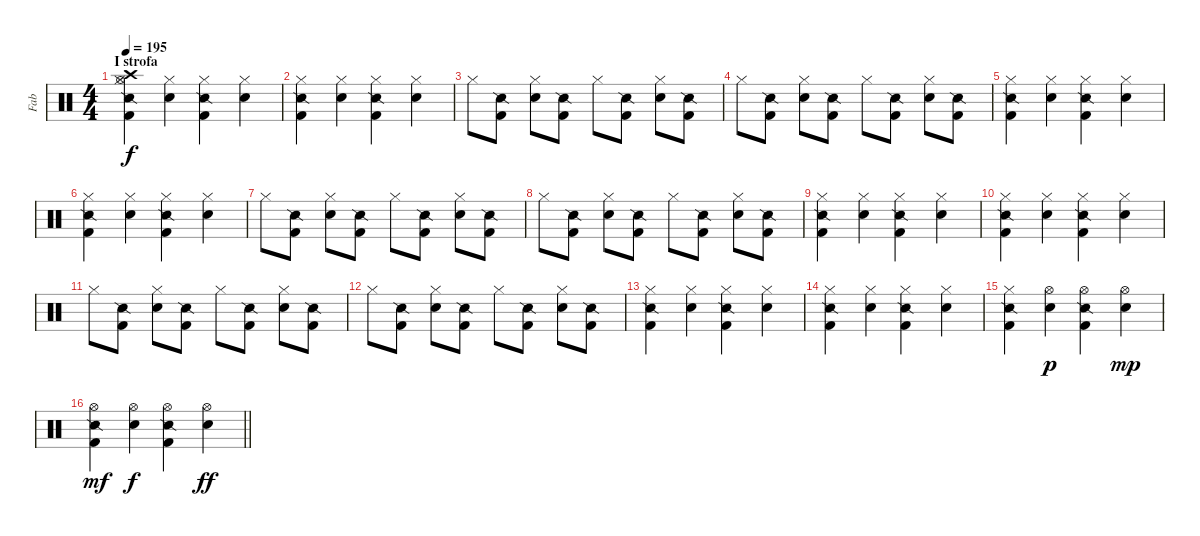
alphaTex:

\track ("Fab" "Fab") {instrument percussion}
\staff {score}
\articulation defaults
\ts (4 4)
\section ("" "I strofa")
\tempo 195
\clef neutral
\ks c
("Crash high (hit)" "Hi-Hat (open)" "Hi-Hat (closed)" "Snare (side stick) 2" "Kick (hit) 2").4{dy f} ("Hi-Hat (closed)" "Electric Snare (hit)").4 ("Hi-Hat (closed)" "Snare (side stick) 2" "Kick (hit) 2").4 ("Hi-Hat (closed)" "Electric Snare (hit)").4 |
("Hi-Hat (closed)" "Snare (side stick) 2" "Kick (hit) 2").4 ("Hi-Hat (closed)" "Electric Snare (hit)").4 ("Hi-Hat (closed)" "Snare (side stick) 2" "Kick (hit) 2").4 ("Hi-Hat (closed)" "Electric Snare (hit)").4 |
"Hi-Hat (closed)".8 ("Kick (hit) 2" "Snare (side stick) 2").8 ("Hi-Hat (closed)" "Electric Snare (hit)").8 ("Kick (hit) 2" "Snare (side stick) 2").8 "Hi-Hat (closed)".8 ("Kick (hit) 2" "Snare (side stick) 2").8 ("Hi-Hat (closed)" "Electric Snare (hit)").8 ("Kick (hit) 2" "Snare (side stick) 2").8 |
"Hi-Hat (closed)".8 ("Snare (side stick) 2" "Kick (hit) 2").8 ("Hi-Hat (closed)" "Electric Snare (hit)").8 ("Snare (side stick) 2" "Kick (hit) 2").8 "Hi-Hat (closed)".8 ("Snare (side stick) 2" "Kick (hit) 2").8 ("Hi-Hat (closed)" "Electric Snare (hit)").8 ("Snare (side stick) 2" "Kick (hit) 2").8 |
("Hi-Hat (closed)" "Snare (side stick) 2" "Kick (hit) 2").4 ("Hi-Hat (closed)" "Electric Snare (hit)").4 ("Hi-Hat (closed)" "Snare (side stick) 2" "Kick (hit) 2").4 ("Hi-Hat (closed)" "Electric Snare (hit)").4 |
("Hi-Hat (closed)" "Snare (side stick) 2" "Kick (hit) 2").4 ("Hi-Hat (closed)" "Electric Snare (hit)").4 ("Hi-Hat (closed)" "Snare (side stick) 2" "Kick (hit) 2").4 ("Hi-Hat (closed)" "Electric Snare (hit)").4 |
"Hi-Hat (closed)".8 ("Kick (hit) 2" "Snare (side stick) 2").8 ("Hi-Hat (closed)" "Electric Snare (hit)").8 ("Kick (hit) 2" "Snare (side stick) 2").8 "Hi-Hat (closed)".8 ("Kick (hit) 2" "Snare (side stick) 2").8 ("Hi-Hat (closed)" "Electric Snare (hit)").8 ("Kick (hit) 2" "Snare (side stick) 2").8 |
"Hi-Hat (closed)".8 ("Snare (side stick) 2" "Kick (hit) 2").8 ("Hi-Hat (closed)" "Electric Snare (hit)").8 ("Snare (side stick) 2" "Kick (hit) 2").8 "Hi-Hat (closed)".8 ("Snare (side stick) 2" "Kick (hit) 2").8 ("Hi-Hat (closed)" "Electric Snare (hit)").8 ("Snare (side stick) 2" "Kick (hit) 2").8 |
("Hi-Hat (closed)" "Snare (side stick) 2" "Kick (hit) 2").4 ("Hi-Hat (closed)" "Electric Snare (hit)").4 ("Hi-Hat (closed)" "Snare (side stick) 2" "Kick (hit) 2").4 ("Hi-Hat (closed)" "Electric Snare (hit)").4 |
("Hi-Hat (closed)" "Snare (side stick) 2" "Kick (hit) 2").4 ("Hi-Hat (closed)" "Electric Snare (hit)").4 ("Hi-Hat (closed)" "Snare (side stick) 2" "Kick (hit) 2").4 ("Hi-Hat (closed)" "Electric Snare (hit)").4 |
"Hi-Hat (closed)".8 ("Kick (hit) 2" "Snare (side stick) 2").8 ("Hi-Hat (closed)" "Electric Snare (hit)").8 ("Kick (hit) 2" "Snare (side stick) 2").8 "Hi-Hat (closed)".8 ("Kick (hit) 2" "Snare (side stick) 2").8 ("Hi-Hat (closed)" "Electric Snare (hit)").8 ("Kick (hit) 2" "Snare (side stick) 2").8 |
"Hi-Hat (closed)".8 ("Snare (side stick) 2" "Kick (hit) 2").8 ("Hi-Hat (closed)" "Electric Snare (hit)").8 ("Snare (side stick) 2" "Kick (hit) 2").8 "Hi-Hat (closed)".8 ("Snare (side stick) 2" "Kick (hit) 2").8 ("Hi-Hat (closed)" "Electric Snare (hit)").8 ("Snare (side stick) 2" "Kick (hit) 2").8 |
("Hi-Hat (closed)" "Snare (side stick) 2" "Kick (hit) 2").4 ("Hi-Hat (closed)" "Electric Snare (hit)").4 ("Hi-Hat (closed)" "Snare (side stick) 2" "Kick (hit) 2").4 ("Hi-Hat (closed)" "Electric Snare (hit)").4 |
("Hi-Hat (closed)" "Snare (side stick) 2" "Kick (hit) 2").4 ("Hi-Hat (closed)" "Electric Snare (hit)").4 ("Hi-Hat (closed)" "Snare (side stick) 2" "Kick (hit) 2").4 ("Hi-Hat (closed)" "Electric Snare (hit)").4 |
("Hi-Hat (closed)" "Snare (side stick) 2" "Kick (hit) 2").4 ("Hi-Hat (open)" "Electric Snare (hit)").4{dy p} ("Hi-Hat (open)" "Snare (side stick) 2" "Kick (hit) 2").4 ("Hi-Hat (open)" "Electric Snare (hit)").4{dy mp} |
\barLineRight lightlight
("Hi-Hat (open)" "Snare (side stick) 2" "Kick (hit) 2").4{dy mf} ("Hi-Hat (open)" "Electric Snare (hit)").4{dy f} ("Hi-Hat (open)" "Snare (side stick) 2" "Kick (hit) 2").4 ("Hi-Hat (open)" "Electric Snare (hit)").4{dy ff}
